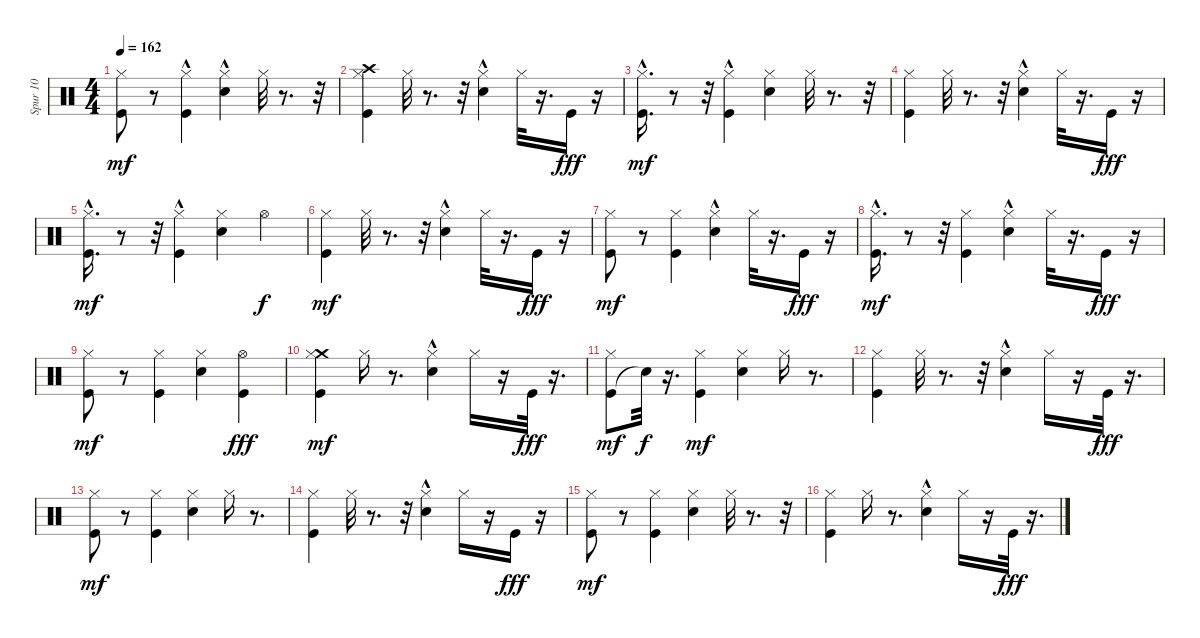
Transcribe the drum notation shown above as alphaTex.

\track ("Spur 10" "Spur 10") {instrument percussion}
\staff {score}
\articulation defaults
\ts (4 4)
\tempo 162
\clef neutral
\ks c
("Kick (hit)" "Hi-Hat (closed)").8{dy mf} r.8 ("Kick (hit)"{hac} "Hi-Hat (closed)").4 ("Snare (hit) 2"{hac} "Hi-Hat (closed)").4 "Hi-Hat (closed)".32 r.8{d} r.32 |
("Kick (hit)" "Hi-Hat (closed)" "Crash high (hit)").4 "Hi-Hat (closed)".32 r.8{d} r.32 ("Snare (hit) 2"{hac} "Hi-Hat (closed)").4 "Hi-Hat (closed)".32 r.16{d} "Kick (hit)".16{dy fff} r.16 |
("Kick (hit)"{hac} "Hi-Hat (closed)").16{d dy mf} r.8 r.32 ("Kick (hit)"{hac} "Hi-Hat (closed)").4 ("Snare (hit) 2" "Hi-Hat (closed)").4 "Hi-Hat (closed)".32 r.8{d} r.32 |
("Kick (hit)" "Hi-Hat (closed)").4 "Hi-Hat (closed)".32 r.8{d} r.32 ("Snare (hit) 2"{hac} "Hi-Hat (closed)").4 "Hi-Hat (closed)".32 r.16{d} "Kick (hit)".16{dy fff} r.16 |
("Kick (hit)"{hac} "Hi-Hat (closed)").16{d dy mf} r.8 r.32 ("Kick (hit)"{hac} "Hi-Hat (closed)").4 ("Snare (hit) 2" "Hi-Hat (closed)").4 "Hi-Hat (open)".4{dy f} |
("Kick (hit)" "Hi-Hat (closed)").4{dy mf} "Hi-Hat (closed)".32 r.8{d} r.32 ("Snare (hit) 2"{hac} "Hi-Hat (closed)").4 "Hi-Hat (closed)".32 r.16{d} "Kick (hit)".16{dy fff} r.16 |
("Kick (hit)" "Hi-Hat (closed)").8{dy mf} r.8 ("Kick (hit)" "Hi-Hat (closed)").4 ("Snare (hit) 2"{hac} "Hi-Hat (closed)").4 "Hi-Hat (closed)".32 r.16{d} "Kick (hit)".16{dy fff} r.16 |
("Kick (hit)"{hac} "Hi-Hat (closed)").16{d dy mf} r.8 r.32 ("Kick (hit)" "Hi-Hat (closed)").4 ("Snare (hit) 2"{hac} "Hi-Hat (closed)").4 "Hi-Hat (closed)".32 r.16{d} "Kick (hit)".16{dy fff} r.16 |
("Kick (hit)" "Hi-Hat (closed)").8{dy mf} r.8 ("Kick (hit)" "Hi-Hat (closed)").4 ("Snare (hit) 2" "Hi-Hat (closed)").4 ("Kick (hit)" "Hi-Hat (open)").4{dy fff} |
("Kick (hit)" "Crash medium (hit)" "Hi-Hat (closed)").4{dy mf} "Hi-Hat (closed)".16 r.8{d} ("Snare (hit) 2"{hac} "Hi-Hat (closed)").4 "Hi-Hat (closed)".16 r.16 "Kick (hit)".32{dy fff} r.16{d} |
("Kick (hit)" "Hi-Hat (closed)").8{dy mf} "Snare (hit)"{t}.32{dy f} r.16{d} ("Kick (hit)" "Hi-Hat (closed)").4{dy mf} ("Snare (hit) 2" "Hi-Hat (closed)").4 "Hi-Hat (closed)".16 r.8{d} |
("Kick (hit)" "Hi-Hat (closed)").4 "Hi-Hat (closed)".32 r.8{d} r.32 ("Snare (hit) 2"{hac} "Hi-Hat (closed)").4 "Hi-Hat (closed)".16 r.16 "Kick (hit)".32{dy fff} r.16{d} |
("Kick (hit)" "Hi-Hat (closed)").8{dy mf} r.8 ("Kick (hit)" "Hi-Hat (closed)").4 ("Snare (hit) 2" "Hi-Hat (closed)").4 "Hi-Hat (closed)".16 r.8{d} |
("Kick (hit)" "Hi-Hat (closed)").4 "Hi-Hat (closed)".32 r.8{d} r.32 ("Snare (hit) 2"{hac} "Hi-Hat (closed)").4 "Hi-Hat (closed)".16 r.16 "Kick (hit)".16{dy fff} r.16 |
("Kick (hit)" "Hi-Hat (closed)").8{dy mf} r.8 ("Kick (hit)" "Hi-Hat (closed)").4 ("Snare (hit) 2" "Hi-Hat (closed)").4 "Hi-Hat (closed)".32 r.8{d} r.32 |
("Kick (hit)" "Hi-Hat (closed)").4 "Hi-Hat (closed)".16 r.8{d} ("Snare (hit) 2"{hac} "Hi-Hat (closed)").4 "Hi-Hat (closed)".16 r.16 "Kick (hit)".32{dy fff} r.16{d}
